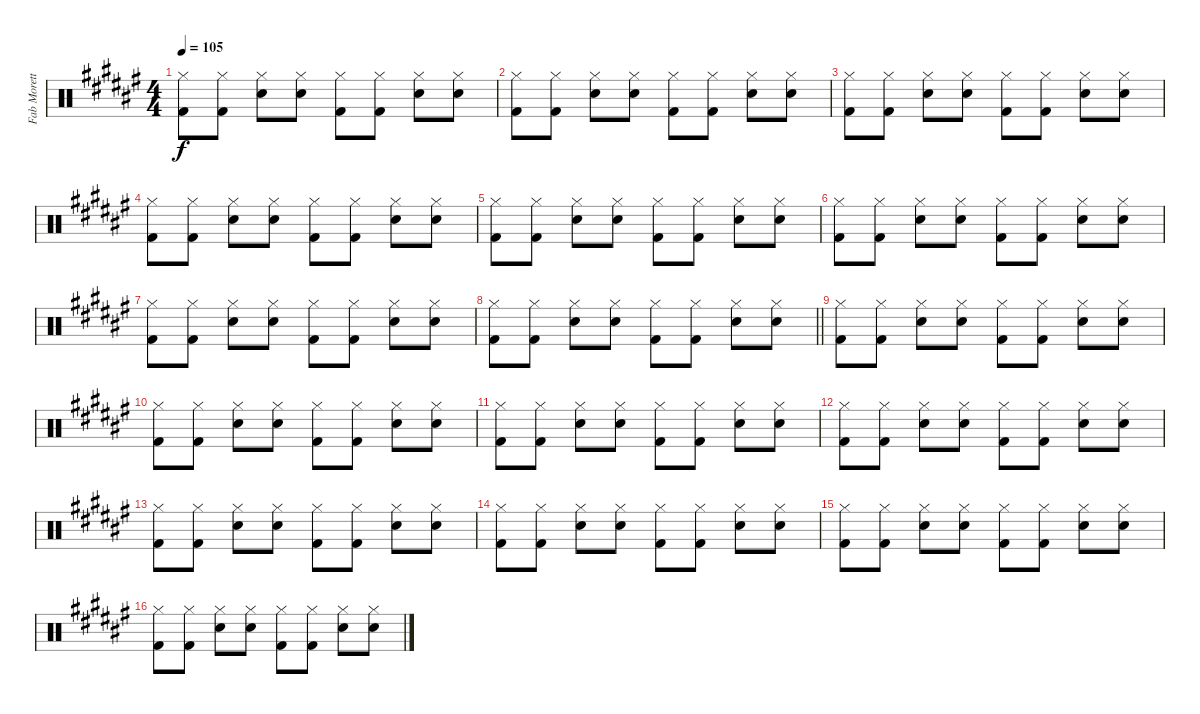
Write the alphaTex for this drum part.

\track ("Fab Moretti - Drums" "Fab Morett") {instrument percussion}
\staff {score}
\articulation defaults
\ts (4 4)
\tempo 105
\clef neutral
\ks f#
("Hi-Hat (closed)" "Kick (hit) 2").8{dy f} ("Hi-Hat (closed)" "Kick (hit) 2").8 ("Hi-Hat (closed)" "Snare (hit) 2").8 ("Hi-Hat (closed)" "Snare (hit) 2").8 ("Hi-Hat (closed)" "Kick (hit) 2").8 ("Hi-Hat (closed)" "Kick (hit) 2").8 ("Hi-Hat (closed)" "Snare (hit) 2").8 ("Hi-Hat (closed)" "Snare (hit) 2").8 |
("Hi-Hat (closed)" "Kick (hit) 2").8 ("Hi-Hat (closed)" "Kick (hit) 2").8 ("Hi-Hat (closed)" "Snare (hit) 2").8 ("Hi-Hat (closed)" "Snare (hit) 2").8 ("Hi-Hat (closed)" "Kick (hit) 2").8 ("Hi-Hat (closed)" "Kick (hit) 2").8 ("Hi-Hat (closed)" "Snare (hit) 2").8 ("Hi-Hat (closed)" "Snare (hit) 2").8 |
("Hi-Hat (closed)" "Kick (hit) 2").8 ("Hi-Hat (closed)" "Kick (hit) 2").8 ("Hi-Hat (closed)" "Snare (hit) 2").8 ("Hi-Hat (closed)" "Snare (hit) 2").8 ("Hi-Hat (closed)" "Kick (hit) 2").8 ("Hi-Hat (closed)" "Kick (hit) 2").8 ("Hi-Hat (closed)" "Snare (hit) 2").8 ("Hi-Hat (closed)" "Snare (hit) 2").8 |
("Hi-Hat (closed)" "Kick (hit) 2").8 ("Hi-Hat (closed)" "Kick (hit) 2").8 ("Hi-Hat (closed)" "Snare (hit) 2").8 ("Hi-Hat (closed)" "Snare (hit) 2").8 ("Hi-Hat (closed)" "Kick (hit) 2").8 ("Hi-Hat (closed)" "Kick (hit) 2").8 ("Hi-Hat (closed)" "Snare (hit) 2").8 ("Hi-Hat (closed)" "Snare (hit) 2").8 |
("Hi-Hat (closed)" "Kick (hit) 2").8 ("Hi-Hat (closed)" "Kick (hit) 2").8 ("Hi-Hat (closed)" "Snare (hit) 2").8 ("Hi-Hat (closed)" "Snare (hit) 2").8 ("Hi-Hat (closed)" "Kick (hit) 2").8 ("Hi-Hat (closed)" "Kick (hit) 2").8 ("Hi-Hat (closed)" "Snare (hit) 2").8 ("Hi-Hat (closed)" "Snare (hit) 2").8 |
("Hi-Hat (closed)" "Kick (hit) 2").8 ("Hi-Hat (closed)" "Kick (hit) 2").8 ("Hi-Hat (closed)" "Snare (hit) 2").8 ("Hi-Hat (closed)" "Snare (hit) 2").8 ("Hi-Hat (closed)" "Kick (hit) 2").8 ("Hi-Hat (closed)" "Kick (hit) 2").8 ("Hi-Hat (closed)" "Snare (hit) 2").8 ("Hi-Hat (closed)" "Snare (hit) 2").8 |
("Hi-Hat (closed)" "Kick (hit) 2").8 ("Hi-Hat (closed)" "Kick (hit) 2").8 ("Hi-Hat (closed)" "Snare (hit) 2").8 ("Hi-Hat (closed)" "Snare (hit) 2").8 ("Hi-Hat (closed)" "Kick (hit) 2").8 ("Hi-Hat (closed)" "Kick (hit) 2").8 ("Hi-Hat (closed)" "Snare (hit) 2").8 ("Hi-Hat (closed)" "Snare (hit) 2").8 |
\barLineRight lightlight
("Hi-Hat (closed)" "Kick (hit) 2").8 ("Hi-Hat (closed)" "Kick (hit) 2").8 ("Hi-Hat (closed)" "Snare (hit) 2").8 ("Hi-Hat (closed)" "Snare (hit) 2").8 ("Hi-Hat (closed)" "Kick (hit) 2").8 ("Hi-Hat (closed)" "Kick (hit) 2").8 ("Hi-Hat (closed)" "Snare (hit) 2").8 ("Hi-Hat (closed)" "Snare (hit) 2").8 |
("Hi-Hat (closed)" "Kick (hit) 2").8 ("Hi-Hat (closed)" "Kick (hit) 2").8 ("Hi-Hat (closed)" "Snare (hit) 2").8 ("Hi-Hat (closed)" "Snare (hit) 2").8 ("Hi-Hat (closed)" "Kick (hit) 2").8 ("Hi-Hat (closed)" "Kick (hit) 2").8 ("Hi-Hat (closed)" "Snare (hit) 2").8 ("Hi-Hat (closed)" "Snare (hit) 2").8 |
("Hi-Hat (closed)" "Kick (hit) 2").8 ("Hi-Hat (closed)" "Kick (hit) 2").8 ("Hi-Hat (closed)" "Snare (hit) 2").8 ("Hi-Hat (closed)" "Snare (hit) 2").8 ("Hi-Hat (closed)" "Kick (hit) 2").8 ("Hi-Hat (closed)" "Kick (hit) 2").8 ("Hi-Hat (closed)" "Snare (hit) 2").8 ("Hi-Hat (closed)" "Snare (hit) 2").8 |
("Hi-Hat (closed)" "Kick (hit) 2").8 ("Hi-Hat (closed)" "Kick (hit) 2").8 ("Hi-Hat (closed)" "Snare (hit) 2").8 ("Hi-Hat (closed)" "Snare (hit) 2").8 ("Hi-Hat (closed)" "Kick (hit) 2").8 ("Hi-Hat (closed)" "Kick (hit) 2").8 ("Hi-Hat (closed)" "Snare (hit) 2").8 ("Hi-Hat (closed)" "Snare (hit) 2").8 |
("Hi-Hat (closed)" "Kick (hit) 2").8 ("Hi-Hat (closed)" "Kick (hit) 2").8 ("Hi-Hat (closed)" "Snare (hit) 2").8 ("Hi-Hat (closed)" "Snare (hit) 2").8 ("Hi-Hat (closed)" "Kick (hit) 2").8 ("Hi-Hat (closed)" "Kick (hit) 2").8 ("Hi-Hat (closed)" "Snare (hit) 2").8 ("Hi-Hat (closed)" "Snare (hit) 2").8 |
("Hi-Hat (closed)" "Kick (hit) 2").8 ("Hi-Hat (closed)" "Kick (hit) 2").8 ("Hi-Hat (closed)" "Snare (hit) 2").8 ("Hi-Hat (closed)" "Snare (hit) 2").8 ("Hi-Hat (closed)" "Kick (hit) 2").8 ("Hi-Hat (closed)" "Kick (hit) 2").8 ("Hi-Hat (closed)" "Snare (hit) 2").8 ("Hi-Hat (closed)" "Snare (hit) 2").8 |
("Hi-Hat (closed)" "Kick (hit) 2").8 ("Hi-Hat (closed)" "Kick (hit) 2").8 ("Hi-Hat (closed)" "Snare (hit) 2").8 ("Hi-Hat (closed)" "Snare (hit) 2").8 ("Hi-Hat (closed)" "Kick (hit) 2").8 ("Hi-Hat (closed)" "Kick (hit) 2").8 ("Hi-Hat (closed)" "Snare (hit) 2").8 ("Hi-Hat (closed)" "Snare (hit) 2").8 |
("Hi-Hat (closed)" "Kick (hit) 2").8 ("Hi-Hat (closed)" "Kick (hit) 2").8 ("Hi-Hat (closed)" "Snare (hit) 2").8 ("Hi-Hat (closed)" "Snare (hit) 2").8 ("Hi-Hat (closed)" "Kick (hit) 2").8 ("Hi-Hat (closed)" "Kick (hit) 2").8 ("Hi-Hat (closed)" "Snare (hit) 2").8 ("Hi-Hat (closed)" "Snare (hit) 2").8 |
("Hi-Hat (closed)" "Kick (hit) 2").8 ("Hi-Hat (closed)" "Kick (hit) 2").8 ("Hi-Hat (closed)" "Snare (hit) 2").8 ("Hi-Hat (closed)" "Snare (hit) 2").8 ("Hi-Hat (closed)" "Kick (hit) 2").8 ("Hi-Hat (closed)" "Kick (hit) 2").8 ("Hi-Hat (closed)" "Snare (hit) 2").8 ("Hi-Hat (closed)" "Snare (hit) 2").8
